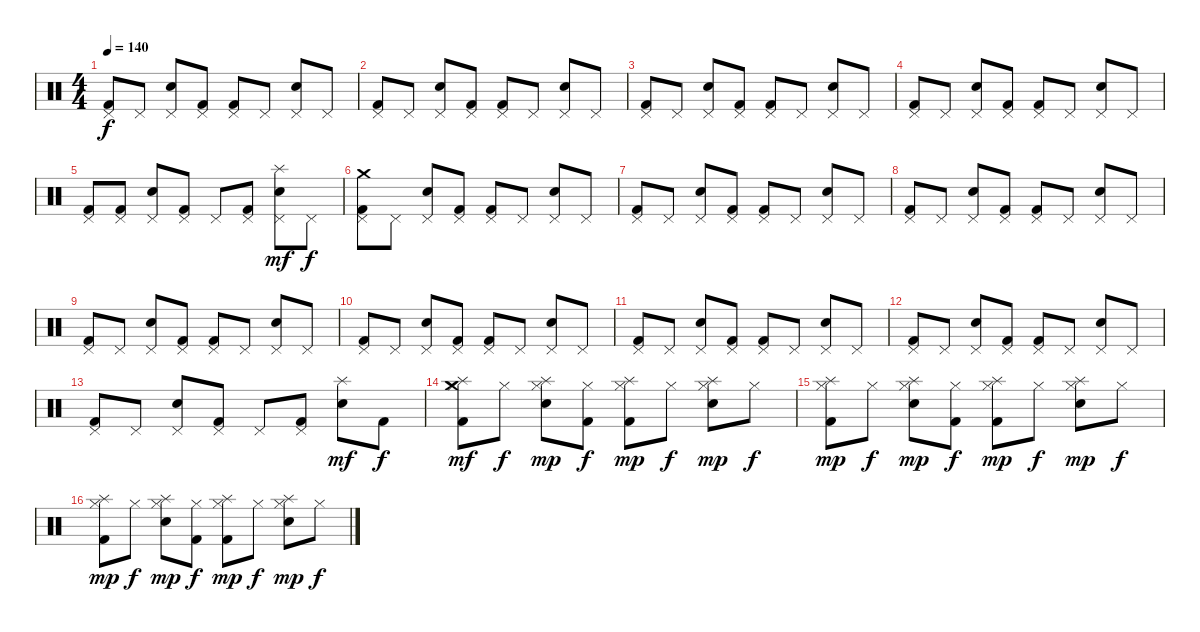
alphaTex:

\track "" {instrument percussion}
\staff {score}
\articulation defaults
\ts (4 4)
\tempo 140
\clef neutral
\ks c
("Pedal Hi-Hat (hit)" "Kick (hit) 2").8{dy f} "Pedal Hi-Hat (hit)".8 ("Pedal Hi-Hat (hit)" "Electric Snare (hit)").8 ("Pedal Hi-Hat (hit)" "Kick (hit) 2").8 ("Pedal Hi-Hat (hit)" "Kick (hit) 2").8 "Pedal Hi-Hat (hit)".8 ("Pedal Hi-Hat (hit)" "Electric Snare (hit)").8 "Pedal Hi-Hat (hit)".8 |
("Pedal Hi-Hat (hit)" "Kick (hit) 2").8 "Pedal Hi-Hat (hit)".8 ("Pedal Hi-Hat (hit)" "Electric Snare (hit)").8 ("Pedal Hi-Hat (hit)" "Kick (hit) 2").8 ("Pedal Hi-Hat (hit)" "Kick (hit) 2").8 "Pedal Hi-Hat (hit)".8 ("Pedal Hi-Hat (hit)" "Electric Snare (hit)").8 "Pedal Hi-Hat (hit)".8 |
("Pedal Hi-Hat (hit)" "Kick (hit) 2").8 "Pedal Hi-Hat (hit)".8 ("Pedal Hi-Hat (hit)" "Electric Snare (hit)").8 ("Pedal Hi-Hat (hit)" "Kick (hit) 2").8 ("Pedal Hi-Hat (hit)" "Kick (hit) 2").8 "Pedal Hi-Hat (hit)".8 ("Pedal Hi-Hat (hit)" "Electric Snare (hit)").8 "Pedal Hi-Hat (hit)".8 |
("Pedal Hi-Hat (hit)" "Kick (hit) 2").8 "Pedal Hi-Hat (hit)".8 ("Pedal Hi-Hat (hit)" "Electric Snare (hit)").8 ("Pedal Hi-Hat (hit)" "Kick (hit) 2").8 ("Pedal Hi-Hat (hit)" "Kick (hit) 2").8 "Pedal Hi-Hat (hit)".8 ("Pedal Hi-Hat (hit)" "Electric Snare (hit)").8 "Pedal Hi-Hat (hit)".8 |
("Pedal Hi-Hat (hit)" "Kick (hit) 2").8 ("Kick (hit) 2" "Pedal Hi-Hat (hit)").8 ("Pedal Hi-Hat (hit)" "Electric Snare (hit)").8 ("Pedal Hi-Hat (hit)" "Kick (hit) 2").8 "Pedal Hi-Hat (hit)".8 ("Kick (hit) 2" "Pedal Hi-Hat (hit)").8 ("Splash (hit)" "Pedal Hi-Hat (hit)" "Electric Snare (hit)").8{dy mf} "Pedal Hi-Hat (hit)".8{dy f} |
("Crash medium (hit)" "Pedal Hi-Hat (hit)" "Kick (hit) 2").8 "Pedal Hi-Hat (hit)".8 ("Pedal Hi-Hat (hit)" "Electric Snare (hit)").8 ("Pedal Hi-Hat (hit)" "Kick (hit) 2").8 ("Pedal Hi-Hat (hit)" "Kick (hit) 2").8 "Pedal Hi-Hat (hit)".8 ("Pedal Hi-Hat (hit)" "Electric Snare (hit)").8 "Pedal Hi-Hat (hit)".8 |
("Pedal Hi-Hat (hit)" "Kick (hit) 2").8 "Pedal Hi-Hat (hit)".8 ("Pedal Hi-Hat (hit)" "Electric Snare (hit)").8 ("Pedal Hi-Hat (hit)" "Kick (hit) 2").8 ("Pedal Hi-Hat (hit)" "Kick (hit) 2").8 "Pedal Hi-Hat (hit)".8 ("Pedal Hi-Hat (hit)" "Electric Snare (hit)").8 "Pedal Hi-Hat (hit)".8 |
("Pedal Hi-Hat (hit)" "Kick (hit) 2").8 "Pedal Hi-Hat (hit)".8 ("Pedal Hi-Hat (hit)" "Electric Snare (hit)").8 ("Pedal Hi-Hat (hit)" "Kick (hit) 2").8 ("Pedal Hi-Hat (hit)" "Kick (hit) 2").8 "Pedal Hi-Hat (hit)".8 ("Pedal Hi-Hat (hit)" "Electric Snare (hit)").8 "Pedal Hi-Hat (hit)".8 |
("Pedal Hi-Hat (hit)" "Kick (hit) 2").8 "Pedal Hi-Hat (hit)".8 ("Pedal Hi-Hat (hit)" "Electric Snare (hit)").8 ("Pedal Hi-Hat (hit)" "Kick (hit) 2").8 ("Pedal Hi-Hat (hit)" "Kick (hit) 2").8 "Pedal Hi-Hat (hit)".8 ("Pedal Hi-Hat (hit)" "Electric Snare (hit)").8 "Pedal Hi-Hat (hit)".8 |
("Pedal Hi-Hat (hit)" "Kick (hit) 2").8 "Pedal Hi-Hat (hit)".8 ("Pedal Hi-Hat (hit)" "Electric Snare (hit)").8 ("Pedal Hi-Hat (hit)" "Kick (hit) 2").8 ("Pedal Hi-Hat (hit)" "Kick (hit) 2").8 "Pedal Hi-Hat (hit)".8 ("Pedal Hi-Hat (hit)" "Electric Snare (hit)").8 "Pedal Hi-Hat (hit)".8 |
("Pedal Hi-Hat (hit)" "Kick (hit) 2").8 "Pedal Hi-Hat (hit)".8 ("Pedal Hi-Hat (hit)" "Electric Snare (hit)").8 ("Pedal Hi-Hat (hit)" "Kick (hit) 2").8 ("Pedal Hi-Hat (hit)" "Kick (hit) 2").8 "Pedal Hi-Hat (hit)".8 ("Pedal Hi-Hat (hit)" "Electric Snare (hit)").8 "Pedal Hi-Hat (hit)".8 |
("Pedal Hi-Hat (hit)" "Kick (hit) 2").8 "Pedal Hi-Hat (hit)".8 ("Pedal Hi-Hat (hit)" "Electric Snare (hit)").8 ("Pedal Hi-Hat (hit)" "Kick (hit) 2").8 ("Pedal Hi-Hat (hit)" "Kick (hit) 2").8 "Pedal Hi-Hat (hit)".8 ("Pedal Hi-Hat (hit)" "Electric Snare (hit)").8 "Pedal Hi-Hat (hit)".8 |
("Pedal Hi-Hat (hit)" "Kick (hit) 2").8 "Pedal Hi-Hat (hit)".8 ("Pedal Hi-Hat (hit)" "Electric Snare (hit)").8 ("Pedal Hi-Hat (hit)" "Kick (hit) 2").8 "Pedal Hi-Hat (hit)".8 ("Kick (hit) 2" "Pedal Hi-Hat (hit)").8 ("Splash (hit)" "Electric Snare (hit)").8{dy mf} "Kick (hit) 2".8{dy f} |
("Hi-Hat (closed)" "Crash medium (hit)" "Splash (hit)" "Kick (hit) 2").8{dy mf} "Hi-Hat (closed)".8{dy f} ("Hi-Hat (closed)" "Splash (hit)" "Electric Snare (hit)").8{dy mp} ("Hi-Hat (closed)" "Kick (hit) 2").8{dy f} ("Hi-Hat (closed)" "Splash (hit)" "Kick (hit) 2").8{dy mp} "Hi-Hat (closed)".8{dy f} ("Hi-Hat (closed)" "Splash (hit)" "Electric Snare (hit)").8{dy mp} "Hi-Hat (closed)".8{dy f} |
("Hi-Hat (closed)" "Splash (hit)" "Kick (hit) 2").8{dy mp} "Hi-Hat (closed)".8{dy f} ("Hi-Hat (closed)" "Splash (hit)" "Electric Snare (hit)").8{dy mp} ("Hi-Hat (closed)" "Kick (hit) 2").8{dy f} ("Hi-Hat (closed)" "Splash (hit)" "Kick (hit) 2").8{dy mp} "Hi-Hat (closed)".8{dy f} ("Hi-Hat (closed)" "Splash (hit)" "Electric Snare (hit)").8{dy mp} "Hi-Hat (closed)".8{dy f} |
("Hi-Hat (closed)" "Splash (hit)" "Kick (hit) 2").8{dy mp} "Hi-Hat (closed)".8{dy f} ("Hi-Hat (closed)" "Splash (hit)" "Electric Snare (hit)").8{dy mp} ("Hi-Hat (closed)" "Kick (hit) 2").8{dy f} ("Hi-Hat (closed)" "Splash (hit)" "Kick (hit) 2").8{dy mp} "Hi-Hat (closed)".8{dy f} ("Hi-Hat (closed)" "Splash (hit)" "Electric Snare (hit)").8{dy mp} "Hi-Hat (closed)".8{dy f}
